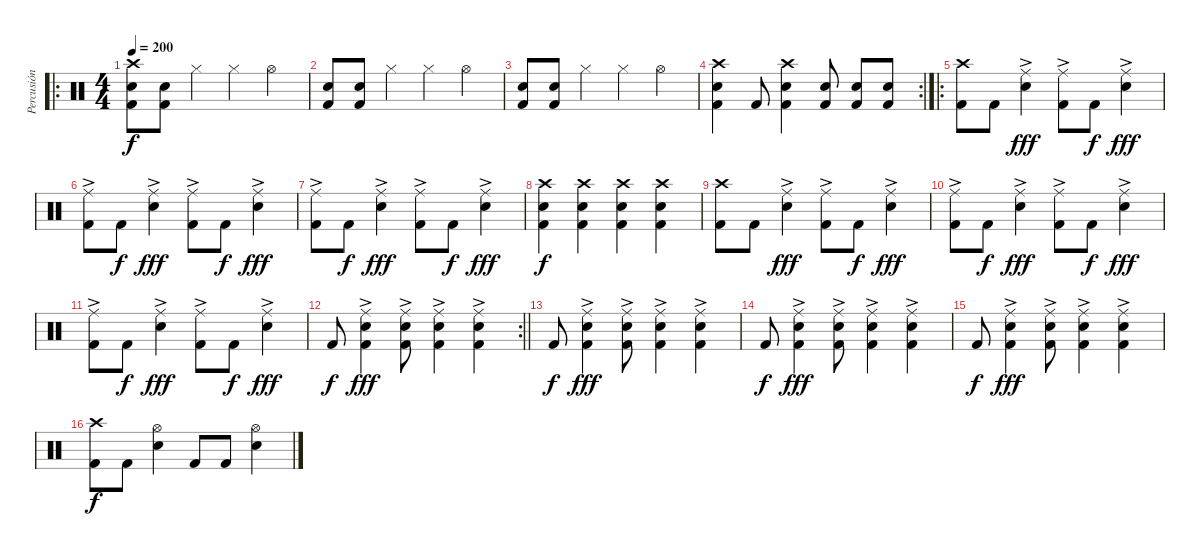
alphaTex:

\track ("Percusión" "Percusión") {instrument percussion}
\staff {score}
\articulation defaults
\ro
\ts (4 4)
\tempo 200
\clef neutral
\ks c
("Crash high (hit)" "Snare (hit) 2" "Kick (hit) 2").8{dy f} ("Snare (hit) 2" "Kick (hit) 2").8 "Hi-Hat (closed)".4 "Hi-Hat (closed)".4 "Hi-Hat (open)".4 |
("Snare (hit) 2" "Kick (hit) 2").8 ("Snare (hit) 2" "Kick (hit) 2").8 "Hi-Hat (closed)".4 "Hi-Hat (closed)".4 "Hi-Hat (open)".4 |
("Snare (hit) 2" "Kick (hit) 2").8 ("Snare (hit) 2" "Kick (hit) 2").8 "Hi-Hat (closed)".4 "Hi-Hat (closed)".4 "Hi-Hat (open)".4 |
\rc 2
("Crash high (hit)" "Snare (hit) 2" "Kick (hit) 2").4 "Kick (hit) 2".8 ("Crash high (hit)" "Snare (hit) 2" "Kick (hit) 2").4 ("Snare (hit) 2" "Kick (hit) 2").8 ("Snare (hit) 2" "Kick (hit) 2").8 ("Snare (hit) 2" "Kick (hit) 2").8 |
\ro
("Crash high (hit)" "Kick (hit) 2").8 "Kick (hit) 2".8 ("Ride (middle)"{ac} "Snare (hit) 2").4{dy fff} ("Ride (middle)"{ac} "Kick (hit) 2").8 "Kick (hit) 2".8{dy f} ("Ride (middle)"{ac} "Snare (hit) 2").4{dy fff} |
("Ride (middle)"{ac} "Kick (hit) 2").8 "Kick (hit) 2".8{dy f} ("Ride (middle)"{ac} "Snare (hit) 2").4{dy fff} ("Ride (middle)"{ac} "Kick (hit) 2").8 "Kick (hit) 2".8{dy f} ("Ride (middle)"{ac} "Snare (hit) 2").4{dy fff} |
("Ride (middle)"{ac} "Kick (hit) 2").8 "Kick (hit) 2".8{dy f} ("Ride (middle)"{ac} "Snare (hit) 2").4{dy fff} ("Ride (middle)"{ac} "Kick (hit) 2").8 "Kick (hit) 2".8{dy f} ("Ride (middle)"{ac} "Snare (hit) 2").4{dy fff} |
("Crash high (hit)" "Snare (hit) 2" "Kick (hit) 2").4{dy f} ("Crash high (hit)" "Snare (hit) 2" "Kick (hit) 2").4 ("Crash high (hit)" "Snare (hit) 2" "Kick (hit) 2").4 ("Crash high (hit)" "Snare (hit) 2" "Kick (hit) 2").4 |
("Crash high (hit)" "Kick (hit) 2").8 "Kick (hit) 2".8 ("Ride (middle)"{ac} "Snare (hit) 2").4{dy fff} ("Ride (middle)"{ac} "Kick (hit) 2").8 "Kick (hit) 2".8{dy f} ("Ride (middle)"{ac} "Snare (hit) 2").4{dy fff} |
("Ride (middle)"{ac} "Kick (hit) 2").8 "Kick (hit) 2".8{dy f} ("Ride (middle)"{ac} "Snare (hit) 2").4{dy fff} ("Ride (middle)"{ac} "Kick (hit) 2").8 "Kick (hit) 2".8{dy f} ("Ride (middle)"{ac} "Snare (hit) 2").4{dy fff} |
("Ride (middle)"{ac} "Kick (hit) 2").8 "Kick (hit) 2".8{dy f} ("Ride (middle)"{ac} "Snare (hit) 2").4{dy fff} ("Ride (middle)"{ac} "Kick (hit) 2").8 "Kick (hit) 2".8{dy f} ("Ride (middle)"{ac} "Snare (hit) 2").4{dy fff} |
\rc 2
\barLineRight lightlight "Kick (hit) 2".8{dy f}
("Ride (middle)"{ac} "Snare (hit) 2" "Kick (hit) 2").4{dy fff} ("Ride (middle)"{ac} "Snare (hit) 2" "Kick (hit) 2").8 ("Ride (middle)"{ac} "Snare (hit) 2" "Kick (hit) 2").4 ("Ride (middle)"{ac} "Snare (hit) 2" "Kick (hit) 2").4 |
"Kick (hit) 2".8{dy f} ("Ride (middle)"{ac} "Snare (hit) 2" "Kick (hit) 2").4{dy fff} ("Ride (middle)"{ac} "Snare (hit) 2" "Kick (hit) 2").8 ("Ride (middle)"{ac} "Snare (hit) 2" "Kick (hit) 2").4 ("Ride (middle)"{ac} "Snare (hit) 2" "Kick (hit) 2").4 |
"Kick (hit) 2".8{dy f} ("Ride (middle)"{ac} "Snare (hit) 2" "Kick (hit) 2").4{dy fff} ("Ride (middle)"{ac} "Snare (hit) 2" "Kick (hit) 2").8 ("Ride (middle)"{ac} "Snare (hit) 2" "Kick (hit) 2").4 ("Ride (middle)"{ac} "Snare (hit) 2" "Kick (hit) 2").4 |
"Kick (hit) 2".8{dy f} ("Ride (middle)"{ac} "Snare (hit) 2" "Kick (hit) 2").4{dy fff} ("Ride (middle)"{ac} "Snare (hit) 2" "Kick (hit) 2").8 ("Ride (middle)"{ac} "Snare (hit) 2" "Kick (hit) 2").4 ("Ride (middle)"{ac} "Snare (hit) 2" "Kick (hit) 2").4 |
("Crash high (hit)" "Kick (hit) 2").8{dy f} "Kick (hit) 2".8 ("Hi-Hat (open)" "Snare (hit) 2").4 "Kick (hit) 2".8 "Kick (hit) 2".8 ("Hi-Hat (open)" "Snare (hit) 2").4
